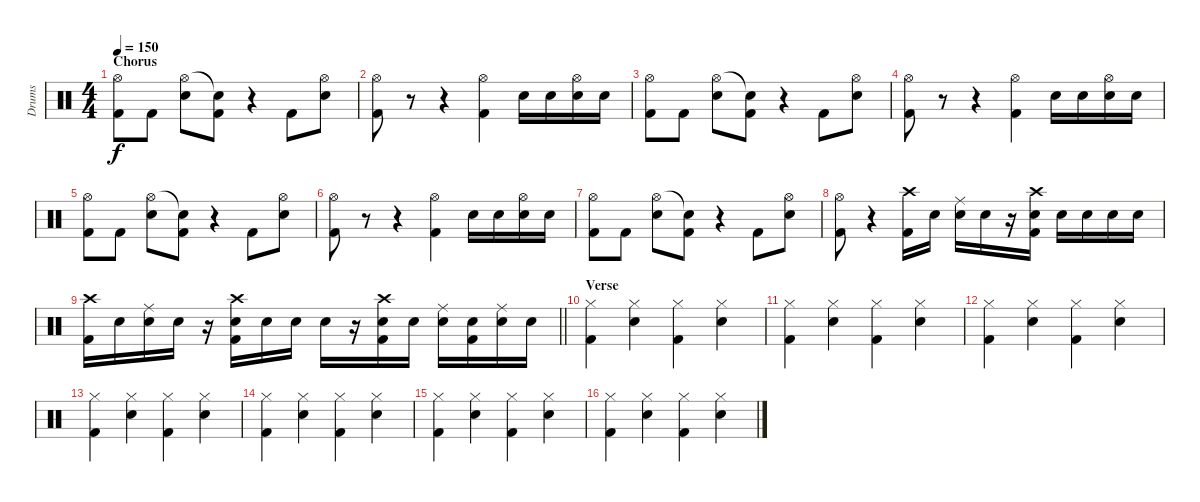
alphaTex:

\track ("Drums" "Drums") {instrument percussion}
\staff {score}
\articulation defaults
\ts (4 4)
\section ("" "Chorus")
\tempo 150
\clef neutral
\ks c
("Hi-Hat (open)" "Kick (hit) 2").8{dy f} "Kick (hit) 2".8 ("Hi-Hat (open)" "Snare (hit) 2").8 ("Snare (hit)"{t} "Kick (hit) 2").8 r.4 "Kick (hit) 2".8 ("Hi-Hat (open)" "Snare (hit) 2").8 |
("Hi-Hat (open)" "Kick (hit) 2").8 r.8 r.4 ("Hi-Hat (open)" "Kick (hit) 2").4 "Snare (hit) 2".16 "Snare (hit) 2".16 ("Hi-Hat (open)" "Snare (hit) 2").16 "Snare (hit) 2".16 |
("Hi-Hat (open)" "Kick (hit) 2").8 "Kick (hit) 2".8 ("Hi-Hat (open)" "Snare (hit) 2").8 ("Snare (hit)"{t} "Kick (hit) 2").8 r.4 "Kick (hit) 2".8 ("Hi-Hat (open)" "Snare (hit) 2").8 |
("Hi-Hat (open)" "Kick (hit) 2").8 r.8 r.4 ("Hi-Hat (open)" "Kick (hit) 2").4 "Snare (hit) 2".16 "Snare (hit) 2".16 ("Hi-Hat (open)" "Snare (hit) 2").16 "Snare (hit) 2".16 |
("Hi-Hat (open)" "Kick (hit) 2").8 "Kick (hit) 2".8 ("Hi-Hat (open)" "Snare (hit) 2").8 ("Snare (hit)"{t} "Kick (hit) 2").8 r.4 "Kick (hit) 2".8 ("Hi-Hat (open)" "Snare (hit) 2").8 |
("Hi-Hat (open)" "Kick (hit) 2").8 r.8 r.4 ("Hi-Hat (open)" "Kick (hit) 2").4 "Snare (hit) 2".16 "Snare (hit) 2".16 ("Hi-Hat (open)" "Snare (hit) 2").16 "Snare (hit) 2".16 |
("Hi-Hat (open)" "Kick (hit) 2").8 "Kick (hit) 2".8 ("Hi-Hat (open)" "Snare (hit) 2").8 ("Snare (hit)"{t} "Kick (hit) 2").8 r.4 "Kick (hit) 2".8 ("Hi-Hat (open)" "Snare (hit) 2").8 |
("Hi-Hat (open)" "Kick (hit) 2").8 r.4 ("Crash high (hit)" "Kick (hit) 2").16 "Snare (hit) 2".16 ("Ride (middle)" "Snare (hit) 2").16 "Snare (hit) 2".16 r.16 ("Crash high (hit)" "Snare (hit) 2" "Kick (hit) 2").16 "Snare (hit) 2".16 "Snare (hit) 2".16 "Snare (hit) 2".16 "Snare (hit) 2".16 |
\barLineRight lightlight
("Crash high (hit)" "Kick (hit) 2").16 "Snare (hit) 2".16 ("Ride (middle)" "Snare (hit) 2").16 "Snare (hit) 2".16 r.16 ("Crash high (hit)" "Snare (hit) 2" "Kick (hit) 2").16 "Snare (hit) 2".16 "Snare (hit) 2".16 "Snare (hit) 2".16 r.16 ("Crash high (hit)" "Snare (hit) 2" "Kick (hit) 2").16 "Snare (hit) 2".16 ("Ride (middle)" "Snare (hit) 2").16 ("Snare (hit) 2" "Kick (hit) 2").16 ("Ride (middle)" "Snare (hit) 2").16 "Snare (hit) 2".16 |
\section ("" "Verse")
("Hi-Hat (closed)" "Kick (hit) 2").4 ("Hi-Hat (closed)" "Snare (hit) 2").4 ("Hi-Hat (closed)" "Kick (hit) 2").4 ("Hi-Hat (closed)" "Snare (hit) 2").4 |
("Hi-Hat (closed)" "Kick (hit) 2").4 ("Hi-Hat (closed)" "Snare (hit) 2").4 ("Hi-Hat (closed)" "Kick (hit) 2").4 ("Hi-Hat (closed)" "Snare (hit) 2").4 |
("Hi-Hat (closed)" "Kick (hit) 2").4 ("Hi-Hat (closed)" "Snare (hit) 2").4 ("Hi-Hat (closed)" "Kick (hit) 2").4 ("Hi-Hat (closed)" "Snare (hit) 2").4 |
("Hi-Hat (closed)" "Kick (hit) 2").4 ("Hi-Hat (closed)" "Snare (hit) 2").4 ("Hi-Hat (closed)" "Kick (hit) 2").4 ("Hi-Hat (closed)" "Snare (hit) 2").4 |
("Hi-Hat (closed)" "Kick (hit) 2").4 ("Hi-Hat (closed)" "Snare (hit) 2").4 ("Hi-Hat (closed)" "Kick (hit) 2").4 ("Hi-Hat (closed)" "Snare (hit) 2").4 |
("Hi-Hat (closed)" "Kick (hit) 2").4 ("Hi-Hat (closed)" "Snare (hit) 2").4 ("Hi-Hat (closed)" "Kick (hit) 2").4 ("Hi-Hat (closed)" "Snare (hit) 2").4 |
("Hi-Hat (closed)" "Kick (hit) 2").4 ("Hi-Hat (closed)" "Snare (hit) 2").4 ("Hi-Hat (closed)" "Kick (hit) 2").4 ("Hi-Hat (closed)" "Snare (hit) 2").4
